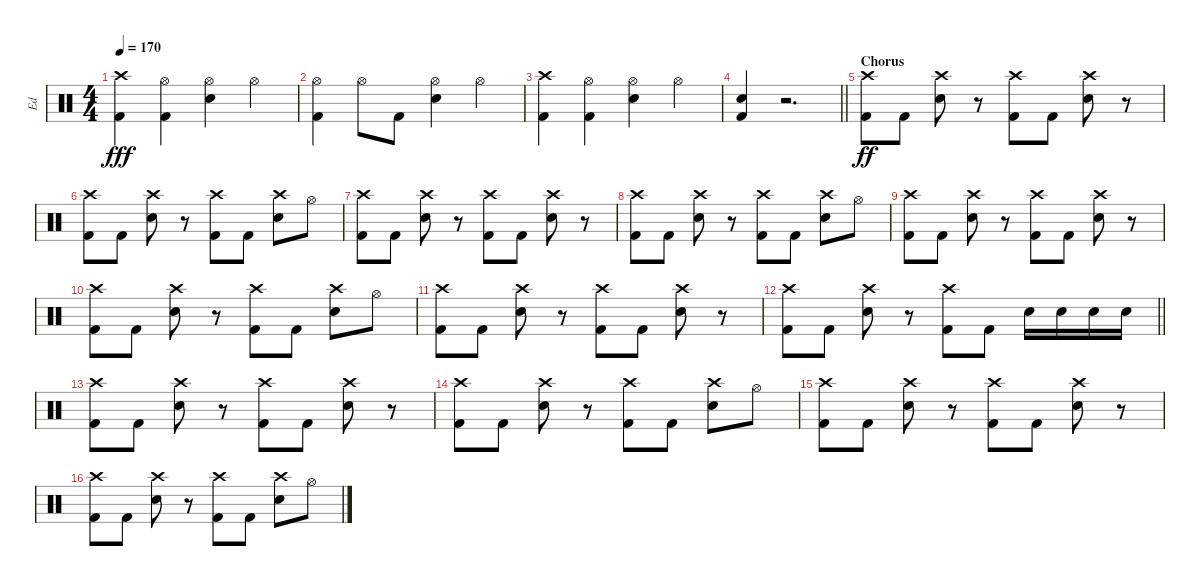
\track ("Ed" "Ed") {instrument percussion}
\staff {score}
\articulation defaults
\ts (4 4)
\tempo 170
\clef neutral
\ks c
("Crash high (hit)" "Kick (hit) 2").4{dy fff} ("Hi-Hat (open)" "Kick (hit) 2").4 ("Hi-Hat (open)" "Snare (hit) 2").4 "Hi-Hat (open)".4 |
("Hi-Hat (open)" "Kick (hit) 2").4 "Hi-Hat (open)".8 "Kick (hit) 2".8 ("Hi-Hat (open)" "Snare (hit) 2").4 "Hi-Hat (open)".4 |
("Crash high (hit)" "Kick (hit) 2").4 ("Hi-Hat (open)" "Kick (hit) 2").4 ("Hi-Hat (open)" "Snare (hit) 2").4 "Hi-Hat (open)".4 |
\barLineRight lightlight
("Snare (hit) 2" "Kick (hit) 2").4 r.2{d} |
\section ("" "Chorus")
("Kick (hit) 2" "Crash high (hit)").8{dy ff} "Kick (hit) 2".8 ("Snare (hit) 2" "Crash high (hit)").8 r.8 ("Kick (hit) 2" "Crash high (hit)").8 "Kick (hit) 2".8 ("Snare (hit) 2" "Crash high (hit)").8 r.8 |
("Kick (hit) 2" "Crash high (hit)").8 "Kick (hit) 2".8 ("Snare (hit) 2" "Crash high (hit)").8 r.8 ("Kick (hit) 2" "Crash high (hit)").8 "Kick (hit) 2".8 ("Snare (hit) 2" "Crash high (hit)").8 "Hi-Hat (open)".8 |
("Kick (hit) 2" "Crash high (hit)").8 "Kick (hit) 2".8 ("Snare (hit) 2" "Crash high (hit)").8 r.8 ("Kick (hit) 2" "Crash high (hit)").8 "Kick (hit) 2".8 ("Snare (hit) 2" "Crash high (hit)").8 r.8 |
("Kick (hit) 2" "Crash high (hit)").8 "Kick (hit) 2".8 ("Snare (hit) 2" "Crash high (hit)").8 r.8 ("Kick (hit) 2" "Crash high (hit)").8 "Kick (hit) 2".8 ("Snare (hit) 2" "Crash high (hit)").8 "Hi-Hat (open)".8 |
("Kick (hit) 2" "Crash high (hit)").8 "Kick (hit) 2".8 ("Snare (hit) 2" "Crash high (hit)").8 r.8 ("Kick (hit) 2" "Crash high (hit)").8 "Kick (hit) 2".8 ("Snare (hit) 2" "Crash high (hit)").8 r.8 |
("Kick (hit) 2" "Crash high (hit)").8 "Kick (hit) 2".8 ("Snare (hit) 2" "Crash high (hit)").8 r.8 ("Kick (hit) 2" "Crash high (hit)").8 "Kick (hit) 2".8 ("Snare (hit) 2" "Crash high (hit)").8 "Hi-Hat (open)".8 |
("Kick (hit) 2" "Crash high (hit)").8 "Kick (hit) 2".8 ("Snare (hit) 2" "Crash high (hit)").8 r.8 ("Kick (hit) 2" "Crash high (hit)").8 "Kick (hit) 2".8 ("Snare (hit) 2" "Crash high (hit)").8 r.8 |
\barLineRight lightlight
("Kick (hit) 2" "Crash high (hit)").8 "Kick (hit) 2".8 ("Snare (hit) 2" "Crash high (hit)").8 r.8 ("Kick (hit) 2" "Crash high (hit)").8 "Kick (hit) 2".8 "Snare (hit) 2".16 "Snare (hit) 2".16 "Snare (hit) 2".16 "Snare (hit) 2".16 |
("Kick (hit) 2" "Crash high (hit)").8 "Kick (hit) 2".8 ("Snare (hit) 2" "Crash high (hit)").8 r.8 ("Kick (hit) 2" "Crash high (hit)").8 "Kick (hit) 2".8 ("Snare (hit) 2" "Crash high (hit)").8 r.8 |
("Kick (hit) 2" "Crash high (hit)").8 "Kick (hit) 2".8 ("Snare (hit) 2" "Crash high (hit)").8 r.8 ("Kick (hit) 2" "Crash high (hit)").8 "Kick (hit) 2".8 ("Snare (hit) 2" "Crash high (hit)").8 "Hi-Hat (open)".8 |
("Kick (hit) 2" "Crash high (hit)").8 "Kick (hit) 2".8 ("Snare (hit) 2" "Crash high (hit)").8 r.8 ("Kick (hit) 2" "Crash high (hit)").8 "Kick (hit) 2".8 ("Snare (hit) 2" "Crash high (hit)").8 r.8 |
("Kick (hit) 2" "Crash high (hit)").8 "Kick (hit) 2".8 ("Snare (hit) 2" "Crash high (hit)").8 r.8 ("Kick (hit) 2" "Crash high (hit)").8 "Kick (hit) 2".8 ("Snare (hit) 2" "Crash high (hit)").8 "Hi-Hat (open)".8
